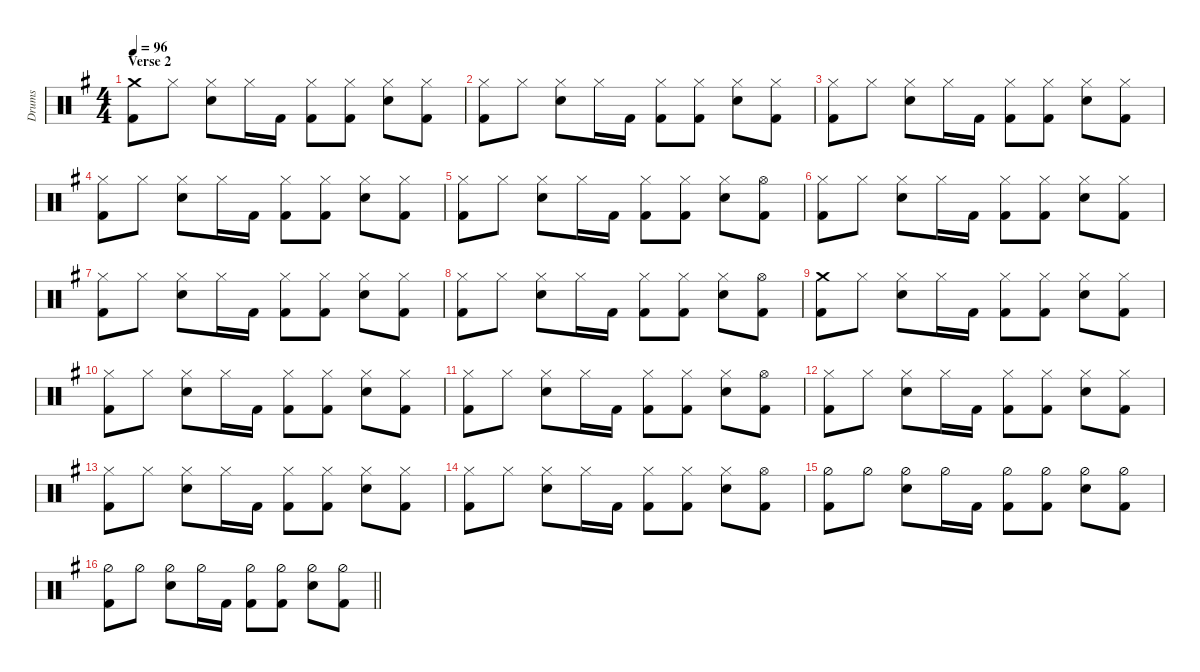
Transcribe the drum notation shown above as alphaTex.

\defaultSystemsLayout 4
\hideDynamics
\bracketExtendMode nobrackets
\otherSystemsTrackNameOrientation horizontal
\track ("Drumkit" "Drums") {instrument percussion}
\staff {score}
\articulation defaults
\ts (4 4)
\section ("" "Verse 2")
\tempo 96
\clef neutral
\ks g
("Kick (hit) 2"{acc forcenatural} "Crash medium (hit)"{acc forcenatural}).8{dy f beam Down} "Hi-Hat (closed)"{acc forcenatural}.8{beam Down} ("Hi-Hat (closed)"{acc forcenatural} "Snare (hit) 2"{acc forcenatural}).8{beam Down} "Hi-Hat (closed)"{acc forcenatural}.16{beam Down} "Kick (hit) 2"{acc forcenatural}.16{beam Down} ("Hi-Hat (closed)"{acc forcenatural} "Kick (hit) 2"{acc forcenatural}).8{beam Down} ("Hi-Hat (closed)"{acc forcenatural} "Kick (hit) 2"{acc forcenatural}).8{beam Down} ("Hi-Hat (closed)"{acc forcenatural} "Snare (hit) 2"{acc forcenatural}).8{beam Down} ("Hi-Hat (closed)"{acc forcenatural} "Kick (hit) 2"{acc forcenatural}).8{beam Down} |
("Hi-Hat (closed)"{acc forcenatural} "Kick (hit) 2"{acc forcenatural}).8{beam Down} "Hi-Hat (closed)"{acc forcenatural}.8{beam Down} ("Hi-Hat (closed)"{acc forcenatural} "Snare (hit) 2"{acc forcenatural}).8{beam Down} "Hi-Hat (closed)"{acc forcenatural}.16{beam Down} "Kick (hit) 2"{acc forcenatural}.16{beam Down} ("Hi-Hat (closed)"{acc forcenatural} "Kick (hit) 2"{acc forcenatural}).8{beam Down} ("Hi-Hat (closed)"{acc forcenatural} "Kick (hit) 2"{acc forcenatural}).8{beam Down} ("Hi-Hat (closed)"{acc forcenatural} "Snare (hit) 2"{acc forcenatural}).8{beam Down} ("Hi-Hat (closed)"{acc forcenatural} "Kick (hit) 2"{acc forcenatural}).8{beam Down} |
("Hi-Hat (closed)"{acc forcenatural} "Kick (hit) 2"{acc forcenatural}).8{beam Down} "Hi-Hat (closed)"{acc forcenatural}.8{beam Down} ("Hi-Hat (closed)"{acc forcenatural} "Snare (hit) 2"{acc forcenatural}).8{beam Down} "Hi-Hat (closed)"{acc forcenatural}.16{beam Down} "Kick (hit) 2"{acc forcenatural}.16{beam Down} ("Hi-Hat (closed)"{acc forcenatural} "Kick (hit) 2"{acc forcenatural}).8{beam Down} ("Hi-Hat (closed)"{acc forcenatural} "Kick (hit) 2"{acc forcenatural}).8{beam Down} ("Hi-Hat (closed)"{acc forcenatural} "Snare (hit) 2"{acc forcenatural}).8{beam Down} ("Hi-Hat (closed)"{acc forcenatural} "Kick (hit) 2"{acc forcenatural}).8{beam Down} |
("Hi-Hat (closed)"{acc forcenatural} "Kick (hit) 2"{acc forcenatural}).8{beam Down} "Hi-Hat (closed)"{acc forcenatural}.8{beam Down} ("Hi-Hat (closed)"{acc forcenatural} "Snare (hit) 2"{acc forcenatural}).8{beam Down} "Hi-Hat (closed)"{acc forcenatural}.16{beam Down} "Kick (hit) 2"{acc forcenatural}.16{beam Down} ("Hi-Hat (closed)"{acc forcenatural} "Kick (hit) 2"{acc forcenatural}).8{beam Down} ("Hi-Hat (closed)"{acc forcenatural} "Kick (hit) 2"{acc forcenatural}).8{beam Down} ("Hi-Hat (closed)"{acc forcenatural} "Snare (hit) 2"{acc forcenatural}).8{beam Down} ("Hi-Hat (closed)"{acc forcenatural} "Kick (hit) 2"{acc forcenatural}).8{beam Down} |
("Hi-Hat (closed)"{acc forcenatural} "Kick (hit) 2"{acc forcenatural}).8{beam Down} "Hi-Hat (closed)"{acc forcenatural}.8{beam Down} ("Hi-Hat (closed)"{acc forcenatural} "Snare (hit) 2"{acc forcenatural}).8{beam Down} "Hi-Hat (closed)"{acc forcenatural}.16{beam Down} "Kick (hit) 2"{acc forcenatural}.16{beam Down} ("Hi-Hat (closed)"{acc forcenatural} "Kick (hit) 2"{acc forcenatural}).8{beam Down} ("Hi-Hat (closed)"{acc forcenatural} "Kick (hit) 2"{acc forcenatural}).8{beam Down} ("Hi-Hat (closed)"{acc forcenatural} "Snare (hit) 2"{acc forcenatural}).8{beam Down} ("Hi-Hat (open)"{acc forcenatural} "Kick (hit) 2"{acc forcenatural}).8{beam Down} |
("Hi-Hat (closed)"{acc forcenatural} "Kick (hit) 2"{acc forcenatural}).8{beam Down} "Hi-Hat (closed)"{acc forcenatural}.8{beam Down} ("Hi-Hat (closed)"{acc forcenatural} "Snare (hit) 2"{acc forcenatural}).8{beam Down} "Hi-Hat (closed)"{acc forcenatural}.16{beam Down} "Kick (hit) 2"{acc forcenatural}.16{beam Down} ("Hi-Hat (closed)"{acc forcenatural} "Kick (hit) 2"{acc forcenatural}).8{beam Down} ("Hi-Hat (closed)"{acc forcenatural} "Kick (hit) 2"{acc forcenatural}).8{beam Down} ("Hi-Hat (closed)"{acc forcenatural} "Snare (hit) 2"{acc forcenatural}).8{beam Down} ("Hi-Hat (closed)"{acc forcenatural} "Kick (hit) 2"{acc forcenatural}).8{beam Down} |
("Hi-Hat (closed)"{acc forcenatural} "Kick (hit) 2"{acc forcenatural}).8{beam Down} "Hi-Hat (closed)"{acc forcenatural}.8{beam Down} ("Hi-Hat (closed)"{acc forcenatural} "Snare (hit) 2"{acc forcenatural}).8{beam Down} "Hi-Hat (closed)"{acc forcenatural}.16{beam Down} "Kick (hit) 2"{acc forcenatural}.16{beam Down} ("Hi-Hat (closed)"{acc forcenatural} "Kick (hit) 2"{acc forcenatural}).8{beam Down} ("Hi-Hat (closed)"{acc forcenatural} "Kick (hit) 2"{acc forcenatural}).8{beam Down} ("Hi-Hat (closed)"{acc forcenatural} "Snare (hit) 2"{acc forcenatural}).8{beam Down} ("Hi-Hat (closed)"{acc forcenatural} "Kick (hit) 2"{acc forcenatural}).8{beam Down} |
("Hi-Hat (closed)"{acc forcenatural} "Kick (hit) 2"{acc forcenatural}).8{beam Down} "Hi-Hat (closed)"{acc forcenatural}.8{beam Down} ("Hi-Hat (closed)"{acc forcenatural} "Snare (hit) 2"{acc forcenatural}).8{beam Down} "Hi-Hat (closed)"{acc forcenatural}.16{beam Down} "Kick (hit) 2"{acc forcenatural}.16{beam Down} ("Hi-Hat (closed)"{acc forcenatural} "Kick (hit) 2"{acc forcenatural}).8{beam Down} ("Hi-Hat (closed)"{acc forcenatural} "Kick (hit) 2"{acc forcenatural}).8{beam Down} ("Hi-Hat (closed)"{acc forcenatural} "Snare (hit) 2"{acc forcenatural}).8{beam Down} ("Hi-Hat (open)"{acc forcenatural} "Kick (hit) 2"{acc forcenatural}).8{beam Down} |
("Kick (hit) 2"{acc forcenatural} "Crash medium (hit)"{acc forcenatural}).8{beam Down} "Hi-Hat (closed)"{acc forcenatural}.8{beam Down} ("Hi-Hat (closed)"{acc forcenatural} "Snare (hit) 2"{acc forcenatural}).8{beam Down} "Hi-Hat (closed)"{acc forcenatural}.16{beam Down} "Kick (hit) 2"{acc forcenatural}.16{beam Down} ("Hi-Hat (closed)"{acc forcenatural} "Kick (hit) 2"{acc forcenatural}).8{beam Down} ("Hi-Hat (closed)"{acc forcenatural} "Kick (hit) 2"{acc forcenatural}).8{beam Down} ("Hi-Hat (closed)"{acc forcenatural} "Snare (hit) 2"{acc forcenatural}).8{beam Down} ("Hi-Hat (closed)"{acc forcenatural} "Kick (hit) 2"{acc forcenatural}).8{beam Down} |
("Hi-Hat (closed)"{acc forcenatural} "Kick (hit) 2"{acc forcenatural}).8{beam Down} "Hi-Hat (closed)"{acc forcenatural}.8{beam Down} ("Hi-Hat (closed)"{acc forcenatural} "Snare (hit) 2"{acc forcenatural}).8{beam Down} "Hi-Hat (closed)"{acc forcenatural}.16{beam Down} "Kick (hit) 2"{acc forcenatural}.16{beam Down} ("Hi-Hat (closed)"{acc forcenatural} "Kick (hit) 2"{acc forcenatural}).8{beam Down} ("Hi-Hat (closed)"{acc forcenatural} "Kick (hit) 2"{acc forcenatural}).8{beam Down} ("Hi-Hat (closed)"{acc forcenatural} "Snare (hit) 2"{acc forcenatural}).8{beam Down} ("Hi-Hat (closed)"{acc forcenatural} "Kick (hit) 2"{acc forcenatural}).8{beam Down} |
("Hi-Hat (closed)"{acc forcenatural} "Kick (hit) 2"{acc forcenatural}).8{beam Down} "Hi-Hat (closed)"{acc forcenatural}.8{beam Down} ("Hi-Hat (closed)"{acc forcenatural} "Snare (hit) 2"{acc forcenatural}).8{beam Down} "Hi-Hat (closed)"{acc forcenatural}.16{beam Down} "Kick (hit) 2"{acc forcenatural}.16{beam Down} ("Hi-Hat (closed)"{acc forcenatural} "Kick (hit) 2"{acc forcenatural}).8{beam Down} ("Hi-Hat (closed)"{acc forcenatural} "Kick (hit) 2"{acc forcenatural}).8{beam Down} ("Hi-Hat (closed)"{acc forcenatural} "Snare (hit) 2"{acc forcenatural}).8{beam Down} ("Hi-Hat (open)"{acc forcenatural} "Kick (hit) 2"{acc forcenatural}).8{beam Down} |
("Hi-Hat (closed)"{acc forcenatural} "Kick (hit) 2"{acc forcenatural}).8{beam Down} "Hi-Hat (closed)"{acc forcenatural}.8{beam Down} ("Hi-Hat (closed)"{acc forcenatural} "Snare (hit) 2"{acc forcenatural}).8{beam Down} "Hi-Hat (closed)"{acc forcenatural}.16{beam Down} "Kick (hit) 2"{acc forcenatural}.16{beam Down} ("Hi-Hat (closed)"{acc forcenatural} "Kick (hit) 2"{acc forcenatural}).8{beam Down} ("Hi-Hat (closed)"{acc forcenatural} "Kick (hit) 2"{acc forcenatural}).8{beam Down} ("Hi-Hat (closed)"{acc forcenatural} "Snare (hit) 2"{acc forcenatural}).8{beam Down} ("Hi-Hat (closed)"{acc forcenatural} "Kick (hit) 2"{acc forcenatural}).8{beam Down} |
("Hi-Hat (closed)"{acc forcenatural} "Kick (hit) 2"{acc forcenatural}).8{beam Down} "Hi-Hat (closed)"{acc forcenatural}.8{beam Down} ("Hi-Hat (closed)"{acc forcenatural} "Snare (hit) 2"{acc forcenatural}).8{beam Down} "Hi-Hat (closed)"{acc forcenatural}.16{beam Down} "Kick (hit) 2"{acc forcenatural}.16{beam Down} ("Hi-Hat (closed)"{acc forcenatural} "Kick (hit) 2"{acc forcenatural}).8{beam Down} ("Hi-Hat (closed)"{acc forcenatural} "Kick (hit) 2"{acc forcenatural}).8{beam Down} ("Hi-Hat (closed)"{acc forcenatural} "Snare (hit) 2"{acc forcenatural}).8{beam Down} ("Hi-Hat (closed)"{acc forcenatural} "Kick (hit) 2"{acc forcenatural}).8{beam Down} |
("Hi-Hat (closed)"{acc forcenatural} "Kick (hit) 2"{acc forcenatural}).8{beam Down} "Hi-Hat (closed)"{acc forcenatural}.8{beam Down} ("Hi-Hat (closed)"{acc forcenatural} "Snare (hit) 2"{acc forcenatural}).8{beam Down} "Hi-Hat (closed)"{acc forcenatural}.16{beam Down} "Kick (hit) 2"{acc forcenatural}.16{beam Down} ("Hi-Hat (closed)"{acc forcenatural} "Kick (hit) 2"{acc forcenatural}).8{beam Down} ("Hi-Hat (closed)"{acc forcenatural} "Kick (hit) 2"{acc forcenatural}).8{beam Down} ("Hi-Hat (closed)"{acc forcenatural} "Snare (hit) 2"{acc forcenatural}).8{beam Down} ("Hi-Hat (open)"{acc forcenatural} "Kick (hit) 2"{acc forcenatural}).8{beam Down} |
("Hi-Hat (half)"{acc forcenatural} "Kick (hit) 2"{acc forcenatural}).8{beam Down} "Hi-Hat (half)"{acc forcenatural}.8{dy mf beam Down} ("Hi-Hat (half)"{acc forcenatural} "Snare (hit) 2"{acc forcenatural}).8{dy f beam Down} "Hi-Hat (half)"{acc forcenatural}.16{dy mf beam Down} "Kick (hit) 2"{acc forcenatural}.16{dy f beam Down} ("Hi-Hat (half)"{acc forcenatural} "Kick (hit) 2"{acc forcenatural}).8{beam Down} ("Hi-Hat (half)"{acc forcenatural} "Kick (hit) 2"{acc forcenatural}).8{beam Down} ("Hi-Hat (half)"{acc forcenatural} "Snare (hit) 2"{acc forcenatural}).8{beam Down} ("Hi-Hat (half)"{acc forcenatural} "Kick (hit) 2"{acc forcenatural}).8{beam Down} |
\barLineRight lightlight
("Hi-Hat (half)"{acc forcenatural} "Kick (hit) 2"{acc forcenatural}).8{beam Down} "Hi-Hat (half)"{acc forcenatural}.8{dy mf beam Down} ("Hi-Hat (half)"{acc forcenatural} "Snare (hit) 2"{acc forcenatural}).8{dy f beam Down} "Hi-Hat (half)"{acc forcenatural}.16{dy mf beam Down} "Kick (hit) 2"{acc forcenatural}.16{dy f beam Down} ("Hi-Hat (half)"{acc forcenatural} "Kick (hit) 2"{acc forcenatural}).8{beam Down} ("Hi-Hat (half)"{acc forcenatural} "Kick (hit) 2"{acc forcenatural}).8{beam Down} ("Hi-Hat (half)"{acc forcenatural} "Snare (hit) 2"{acc forcenatural}).8{beam Down} ("Hi-Hat (half)"{acc forcenatural} "Kick (hit) 2"{acc forcenatural}).8{beam Down}
